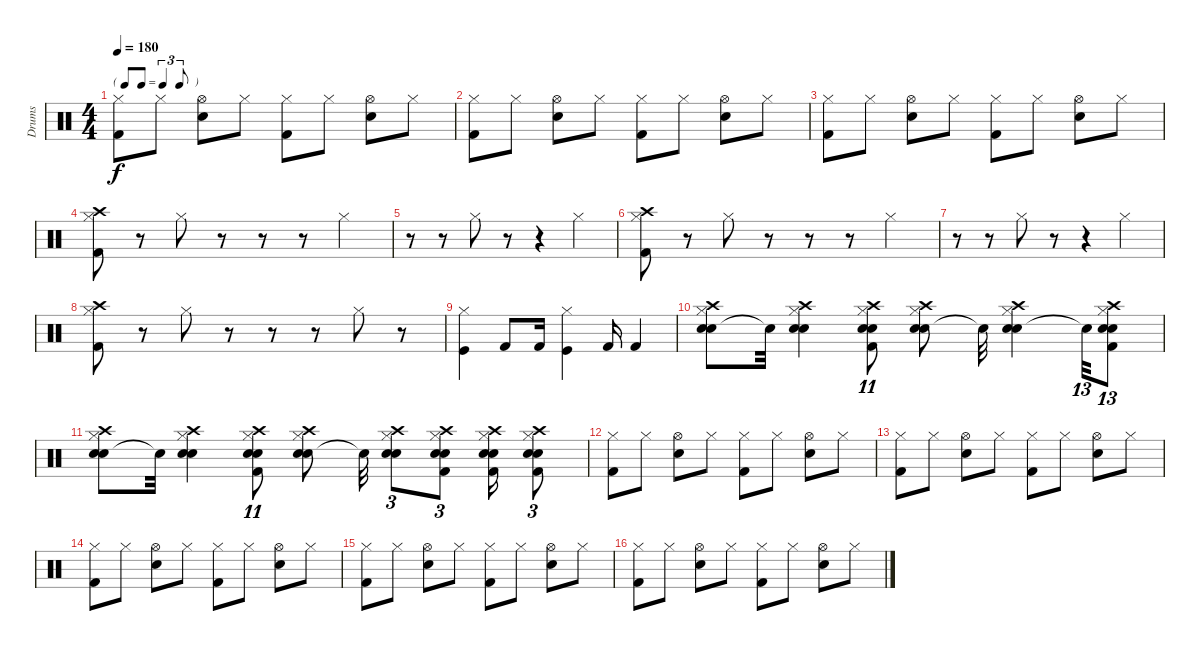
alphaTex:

\track ("Drums" "Drums") {instrument percussion}
\staff {score}
\articulation defaults
\ts (4 4)
\tf triplet8th
\tempo 180
\clef neutral
\ks c
("Hi-Hat (closed)" "Kick (hit) 2").8{dy f} "Hi-Hat (closed)".8 ("Hi-Hat (open)" "Snare (hit) 2").8 "Hi-Hat (closed)".8 ("Hi-Hat (closed)" "Kick (hit) 2").8 "Hi-Hat (closed)".8 ("Hi-Hat (open)" "Snare (hit) 2").8 "Hi-Hat (closed)".8 |
("Hi-Hat (closed)" "Kick (hit) 2").8 "Hi-Hat (closed)".8 ("Hi-Hat (open)" "Snare (hit) 2").8 "Hi-Hat (closed)".8 ("Hi-Hat (closed)" "Kick (hit) 2").8 "Hi-Hat (closed)".8 ("Hi-Hat (open)" "Snare (hit) 2").8 "Hi-Hat (closed)".8 |
("Hi-Hat (closed)" "Kick (hit) 2").8 "Hi-Hat (closed)".8 ("Hi-Hat (open)" "Snare (hit) 2").8 "Hi-Hat (closed)".8 ("Hi-Hat (closed)" "Kick (hit) 2").8 "Hi-Hat (closed)".8 ("Hi-Hat (open)" "Snare (hit) 2").8 "Hi-Hat (closed)".8 |
("Crash high (hit)" "Kick (hit) 2" "Hi-Hat (closed)").8 r.8 "Hi-Hat (closed)".8 r.8 r.8 r.8 "Hi-Hat (closed)".4 |
r.8 r.8 "Hi-Hat (closed)".8 r.8 r.4 "Hi-Hat (closed)".4 |
("Crash high (hit)" "Kick (hit) 2" "Hi-Hat (closed)").8 r.8 "Hi-Hat (closed)".8 r.8 r.8 r.8 "Hi-Hat (closed)".4 |
r.8 r.8 "Hi-Hat (closed)".8 r.8 r.4 "Hi-Hat (closed)".4 |
("Crash high (hit)" "Kick (hit) 2" "Hi-Hat (closed)").8 r.8 "Hi-Hat (closed)".8 r.8 r.8 r.8 "Hi-Hat (closed)".8 r.8 |
("Hi-Hat (closed)" "Kick (hit)").4 "Kick (hit) 2".8 "Kick (hit) 2".16 ("Kick (hit)" "Hi-Hat (closed)").4 "Kick (hit) 2".16 "Kick (hit) 2".4 |
("Snare (hit) 2" "Hi-Hat (closed)" "Crash high (hit)" "Electric Snare (hit)").8 "Snare (hit)"{t}.32 ("Snare (hit) 2" "Hi-Hat (closed)" "Crash high (hit)" "Electric Snare (hit)").4 ("Snare (hit) 2" "Kick (hit) 2" "Hi-Hat (closed)" "Crash high (hit)" "Electric Snare (hit)").8{tu (11 8)} ("Snare (hit) 2" "Hi-Hat (closed)" "Crash high (hit)" "Electric Snare (hit)").8 "Snare (hit)"{t}.32 ("Snare (hit) 2" "Hi-Hat (closed)" "Crash high (hit)" "Electric Snare (hit)").4 "Snare (hit)"{t}.32{tu (13 8)} ("Snare (hit) 2" "Kick (hit) 2" "Hi-Hat (closed)" "Crash high (hit)" "Electric Snare (hit)").8{tu (13 8)} |
("Snare (hit) 2" "Hi-Hat (closed)" "Crash high (hit)" "Electric Snare (hit)").8 "Snare (hit)"{t}.32 ("Snare (hit) 2" "Hi-Hat (closed)" "Crash high (hit)" "Electric Snare (hit)").4 ("Snare (hit) 2" "Kick (hit) 2" "Hi-Hat (closed)" "Crash high (hit)" "Electric Snare (hit)").8{tu (11 8)} ("Snare (hit) 2" "Hi-Hat (closed)" "Crash high (hit)" "Electric Snare (hit)").8 "Snare (hit)"{t}.32 ("Snare (hit) 2" "Hi-Hat (closed)" "Crash high (hit)" "Electric Snare (hit)").8{tu (3 2)} ("Snare (hit) 2" "Hi-Hat (closed)" "Crash high (hit)" "Kick (hit) 2" "Electric Snare (hit)").8{tu (3 2)} ("Snare (hit) 2" "Hi-Hat (closed)" "Crash high (hit)" "Kick (hit) 2" "Electric Snare (hit)").16 ("Snare (hit) 2" "Hi-Hat (closed)" "Crash high (hit)" "Kick (hit) 2" "Electric Snare (hit)").8{tu (3 2)} |
("Hi-Hat (closed)" "Kick (hit) 2").8 "Hi-Hat (closed)".8 ("Hi-Hat (open)" "Snare (hit) 2").8 "Hi-Hat (closed)".8 ("Hi-Hat (closed)" "Kick (hit) 2").8 "Hi-Hat (closed)".8 ("Hi-Hat (open)" "Snare (hit) 2").8 "Hi-Hat (closed)".8 |
("Hi-Hat (closed)" "Kick (hit) 2").8 "Hi-Hat (closed)".8 ("Hi-Hat (open)" "Snare (hit) 2").8 "Hi-Hat (closed)".8 ("Hi-Hat (closed)" "Kick (hit) 2").8 "Hi-Hat (closed)".8 ("Hi-Hat (open)" "Snare (hit) 2").8 "Hi-Hat (closed)".8 |
("Hi-Hat (closed)" "Kick (hit) 2").8 "Hi-Hat (closed)".8 ("Hi-Hat (open)" "Snare (hit) 2").8 "Hi-Hat (closed)".8 ("Hi-Hat (closed)" "Kick (hit) 2").8 "Hi-Hat (closed)".8 ("Hi-Hat (open)" "Snare (hit) 2").8 "Hi-Hat (closed)".8 |
("Hi-Hat (closed)" "Kick (hit) 2").8 "Hi-Hat (closed)".8 ("Hi-Hat (open)" "Snare (hit) 2").8 "Hi-Hat (closed)".8 ("Hi-Hat (closed)" "Kick (hit) 2").8 "Hi-Hat (closed)".8 ("Hi-Hat (open)" "Snare (hit) 2").8 "Hi-Hat (closed)".8 |
("Hi-Hat (closed)" "Kick (hit) 2").8 "Hi-Hat (closed)".8 ("Hi-Hat (open)" "Snare (hit) 2").8 "Hi-Hat (closed)".8 ("Hi-Hat (closed)" "Kick (hit) 2").8 "Hi-Hat (closed)".8 ("Hi-Hat (open)" "Snare (hit) 2").8 "Hi-Hat (closed)".8
